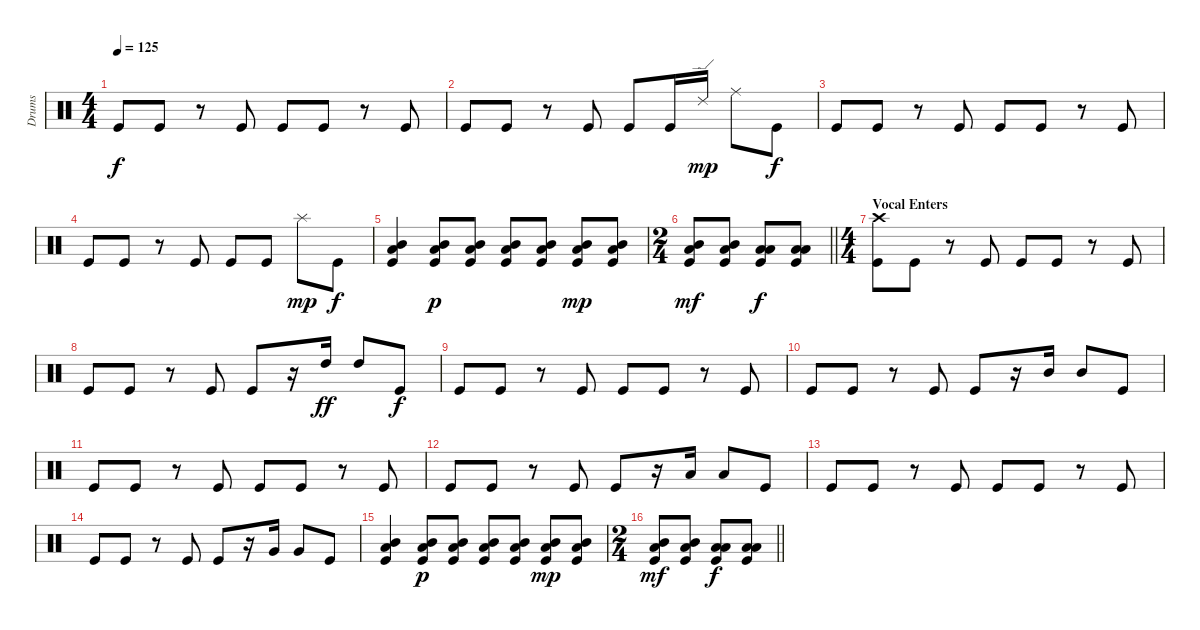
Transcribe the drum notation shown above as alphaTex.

\track ("Drums" "Drums") {instrument percussion}
\staff {score}
\articulation defaults
\ts (4 4)
\tempo 125
\clef neutral
\ks c "Kick (hit)".8{dy f} "Kick (hit)".8
r.8 "Kick (hit)".8 "Kick (hit)".8 "Kick (hit)".8 r.8 "Kick (hit)".8 |
"Kick (hit)".8 "Kick (hit)".8 r.8 "Kick (hit)".8 "Kick (hit)".8 "Kick (hit)".16 "Ride (edge) 2".16{dy mp} "Ride (middle)".8 "Kick (hit)".8{dy f} |
"Kick (hit)".8 "Kick (hit)".8 r.8 "Kick (hit)".8 "Kick (hit)".8 "Kick (hit)".8 r.8 "Kick (hit)".8 |
"Kick (hit)".8 "Kick (hit)".8 r.8 "Kick (hit)".8 "Kick (hit)".8 "Kick (hit)".8 "Splash (hit)".8{dy mp} "Kick (hit)".8{dy f} |
("Mid Tom (hit)" "Low Floor Tom (hit)" "Kick (hit)").4 ("Mid Tom (hit)" "Low Floor Tom (hit)" "Kick (hit)").8{dy p} ("Mid Tom (hit)" "Low Floor Tom (hit)" "Kick (hit)").8 ("Mid Tom (hit)" "Low Floor Tom (hit)" "Kick (hit)").8 ("Mid Tom (hit)" "Low Floor Tom (hit)" "Kick (hit)").8 ("Mid Tom (hit)" "Low Floor Tom (hit)" "Kick (hit)").8{dy mp} ("Mid Tom (hit)" "Low Floor Tom (hit)" "Kick (hit)").8 |
\ts (2 4)
\barLineRight lightlight
("Mid Tom (hit)" "Low Floor Tom (hit)" "Kick (hit)").8{dy mf} ("Mid Tom (hit)" "Low Floor Tom (hit)" "Kick (hit)").8 ("Low Tom (hit)" "Low Floor Tom (hit)" "Kick (hit)").8{dy f} ("Low Tom (hit)" "Low Floor Tom (hit)" "Kick (hit)").8 |
\ts (4 4)
\section ("" "Vocal Enters")
("Crash high (hit)" "Kick (hit)").8 "Kick (hit)".8 r.8 "Kick (hit)".8 "Kick (hit)".8 "Kick (hit)".8 r.8 "Kick (hit)".8 |
"Kick (hit)".8 "Kick (hit)".8 r.8 "Kick (hit)".8 "Kick (hit)".8 r.16 "High Tom (hit)".16{dy ff} "High Tom (hit)".8 "Kick (hit)".8{dy f} |
"Kick (hit)".8 "Kick (hit)".8 r.8 "Kick (hit)".8 "Kick (hit)".8 "Kick (hit)".8 r.8 "Kick (hit)".8 |
"Kick (hit)".8 "Kick (hit)".8 r.8 "Kick (hit)".8 "Kick (hit)".8 r.16 "Mid Tom (hit)".16 "Mid Tom (hit)".8 "Kick (hit)".8 |
"Kick (hit)".8 "Kick (hit)".8 r.8 "Kick (hit)".8 "Kick (hit)".8 "Kick (hit)".8 r.8 "Kick (hit)".8 |
"Kick (hit)".8 "Kick (hit)".8 r.8 "Kick (hit)".8 "Kick (hit)".8 r.16 "Low Tom (hit)".16 "Low Tom (hit)".8 "Kick (hit)".8 |
"Kick (hit)".8 "Kick (hit)".8 r.8 "Kick (hit)".8 "Kick (hit)".8 "Kick (hit)".8 r.8 "Kick (hit)".8 |
"Kick (hit)".8 "Kick (hit)".8 r.8 "Kick (hit)".8 "Kick (hit)".8 r.16 "Very Low Tom (hit)".16 "Very Low Tom (hit)".8 "Kick (hit)".8 |
("Mid Tom (hit)" "Low Floor Tom (hit)" "Kick (hit)").4 ("Mid Tom (hit)" "Low Floor Tom (hit)" "Kick (hit)").8{dy p} ("Mid Tom (hit)" "Low Floor Tom (hit)" "Kick (hit)").8 ("Mid Tom (hit)" "Low Floor Tom (hit)" "Kick (hit)").8 ("Mid Tom (hit)" "Low Floor Tom (hit)" "Kick (hit)").8 ("Mid Tom (hit)" "Low Floor Tom (hit)" "Kick (hit)").8{dy mp} ("Mid Tom (hit)" "Low Floor Tom (hit)" "Kick (hit)").8 |
\ts (2 4)
\barLineRight lightlight
("Mid Tom (hit)" "Low Floor Tom (hit)" "Kick (hit)").8{dy mf} ("Mid Tom (hit)" "Low Floor Tom (hit)" "Kick (hit)").8 ("Low Tom (hit)" "Low Floor Tom (hit)" "Kick (hit)").8{dy f} ("Low Tom (hit)" "Low Floor Tom (hit)" "Kick (hit)").8
